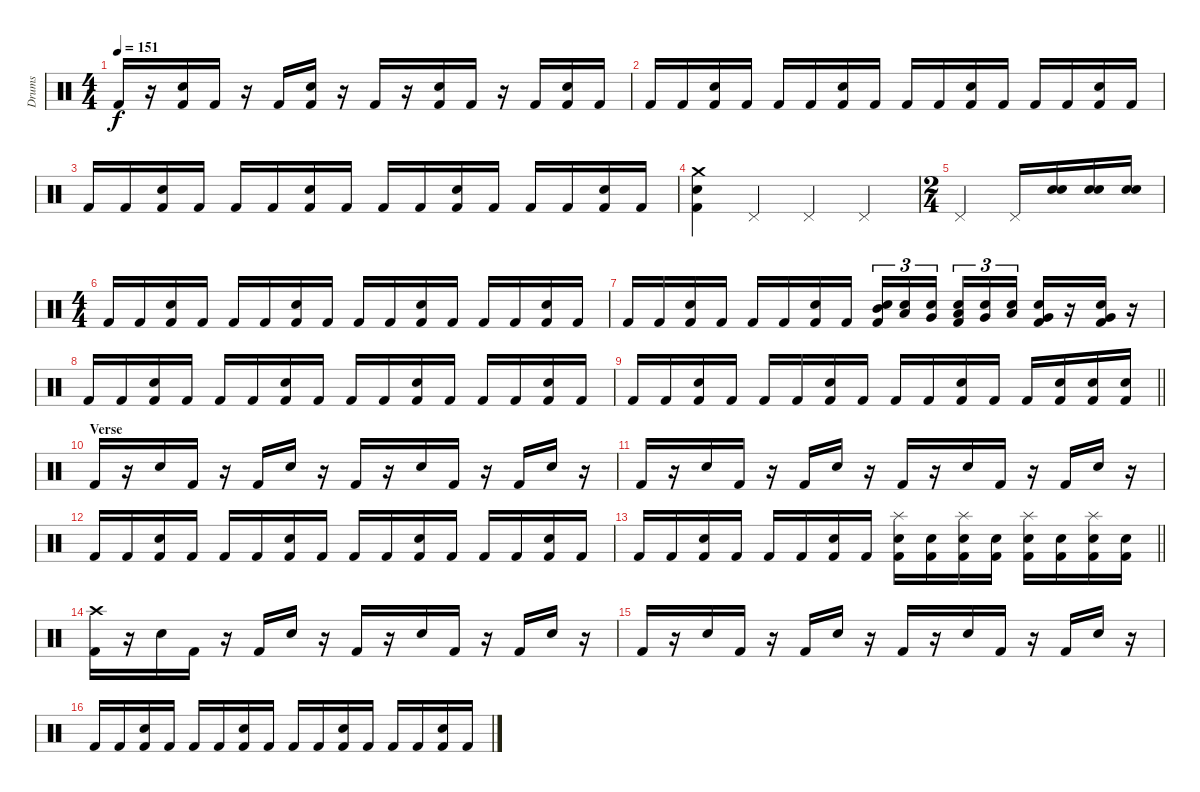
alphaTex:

\track ("Drums" "Drums") {instrument percussion}
\staff {score}
\articulation defaults
\ts (4 4)
\tempo 151
\clef neutral
\ks c "Kick (hit) 2".16{dy f}
r.16 ("Snare (hit) 2" "Kick (hit) 2").16 "Kick (hit) 2".16 r.16 "Kick (hit) 2".16 ("Snare (hit) 2" "Kick (hit) 2").16 r.16 "Kick (hit) 2".16 r.16 ("Snare (hit) 2" "Kick (hit) 2").16 "Kick (hit) 2".16 r.16 "Kick (hit) 2".16 ("Snare (hit) 2" "Kick (hit) 2").16 "Kick (hit) 2".16 |
"Kick (hit) 2".16 "Kick (hit) 2".16 ("Snare (hit) 2" "Kick (hit) 2").16 "Kick (hit) 2".16 "Kick (hit) 2".16 "Kick (hit) 2".16 ("Snare (hit) 2" "Kick (hit) 2").16 "Kick (hit) 2".16 "Kick (hit) 2".16 "Kick (hit) 2".16 ("Snare (hit) 2" "Kick (hit) 2").16 "Kick (hit) 2".16 "Kick (hit) 2".16 "Kick (hit) 2".16 ("Snare (hit) 2" "Kick (hit) 2").16 "Kick (hit) 2".16 |
"Kick (hit) 2".16 "Kick (hit) 2".16 ("Snare (hit) 2" "Kick (hit) 2").16 "Kick (hit) 2".16 "Kick (hit) 2".16 "Kick (hit) 2".16 ("Snare (hit) 2" "Kick (hit) 2").16 "Kick (hit) 2".16 "Kick (hit) 2".16 "Kick (hit) 2".16 ("Snare (hit) 2" "Kick (hit) 2").16 "Kick (hit) 2".16 "Kick (hit) 2".16 "Kick (hit) 2".16 ("Snare (hit) 2" "Kick (hit) 2").16 "Kick (hit) 2".16 |
("Crash medium (hit)" "Snare (hit) 2" "Kick (hit) 2").4 "Pedal Hi-Hat (hit)".4 "Pedal Hi-Hat (hit)".4 "Pedal Hi-Hat (hit)".4 |
\ts (2 4)
"Pedal Hi-Hat (hit)".4 "Pedal Hi-Hat (hit)".16 ("Electric Snare (hit)" "Snare (hit) 2").16 ("Electric Snare (hit)" "Snare (hit) 2").16 ("Electric Snare (hit)" "Snare (hit) 2").16 |
\ts (4 4)
"Kick (hit) 2".16 "Kick (hit) 2".16 ("Snare (hit) 2" "Kick (hit) 2").16 "Kick (hit) 2".16 "Kick (hit) 2".16 "Kick (hit) 2".16 ("Snare (hit) 2" "Kick (hit) 2").16 "Kick (hit) 2".16 "Kick (hit) 2".16 "Kick (hit) 2".16 ("Snare (hit) 2" "Kick (hit) 2").16 "Kick (hit) 2".16 "Kick (hit) 2".16 "Kick (hit) 2".16 ("Snare (hit) 2" "Kick (hit) 2").16 "Kick (hit) 2".16 |
"Kick (hit) 2".16 "Kick (hit) 2".16 ("Snare (hit) 2" "Kick (hit) 2").16 "Kick (hit) 2".16 "Kick (hit) 2".16 "Kick (hit) 2".16 ("Snare (hit) 2" "Kick (hit) 2").16 "Kick (hit) 2".16 ("Mid Tom (hit)" "Snare (hit) 2" "Kick (hit) 2").16{tu (3 2)} ("Low Tom (hit)" "Snare (hit) 2").16{tu (3 2)} ("Very Low Tom (hit)" "Snare (hit) 2").16{tu (3 2) beam splitsecondary} ("Low Floor Tom (hit)" "Snare (hit) 2" "Kick (hit) 2").16{tu (3 2)} ("Very Low Tom (hit)" "Snare (hit) 2").16{tu (3 2)} ("Low Tom (hit)" "Snare (hit) 2").16{tu (3 2)} ("Very Low Tom (hit)" "Snare (hit) 2" "Kick (hit) 2").16 r.16 ("Very Low Tom (hit)" "Snare (hit) 2" "Kick (hit) 2").16 r.16 |
"Kick (hit) 2".16 "Kick (hit) 2".16 ("Snare (hit) 2" "Kick (hit) 2").16 "Kick (hit) 2".16 "Kick (hit) 2".16 "Kick (hit) 2".16 ("Snare (hit) 2" "Kick (hit) 2").16 "Kick (hit) 2".16 "Kick (hit) 2".16 "Kick (hit) 2".16 ("Snare (hit) 2" "Kick (hit) 2").16 "Kick (hit) 2".16 "Kick (hit) 2".16 "Kick (hit) 2".16 ("Snare (hit) 2" "Kick (hit) 2").16 "Kick (hit) 2".16 |
\barLineRight lightlight "Kick (hit) 2".16 "Kick (hit) 2".16
("Snare (hit) 2" "Kick (hit) 2").16 "Kick (hit) 2".16 "Kick (hit) 2".16 "Kick (hit) 2".16 ("Snare (hit) 2" "Kick (hit) 2").16 "Kick (hit) 2".16 "Kick (hit) 2".16 "Kick (hit) 2".16 ("Snare (hit) 2" "Kick (hit) 2").16 "Kick (hit) 2".16 "Kick (hit) 2".16 ("Snare (hit) 2" "Kick (hit) 2").16 ("Snare (hit) 2" "Kick (hit) 2").16 ("Snare (hit) 2" "Kick (hit) 2").16 |
\section ("" "Verse")
"Kick (hit) 2".16 r.16 "Snare (hit) 2".16 "Kick (hit) 2".16 r.16 "Kick (hit) 2".16 "Snare (hit) 2".16 r.16 "Kick (hit) 2".16 r.16 "Snare (hit) 2".16 "Kick (hit) 2".16 r.16 "Kick (hit) 2".16 "Snare (hit) 2".16 r.16 |
"Kick (hit) 2".16 r.16 "Snare (hit) 2".16 "Kick (hit) 2".16 r.16 "Kick (hit) 2".16 "Snare (hit) 2".16 r.16 "Kick (hit) 2".16 r.16 "Snare (hit) 2".16 "Kick (hit) 2".16 r.16 "Kick (hit) 2".16 "Snare (hit) 2".16 r.16 |
"Kick (hit) 2".16 "Kick (hit) 2".16 ("Snare (hit) 2" "Kick (hit) 2").16 "Kick (hit) 2".16 "Kick (hit) 2".16 "Kick (hit) 2".16 ("Snare (hit) 2" "Kick (hit) 2").16 "Kick (hit) 2".16 "Kick (hit) 2".16 "Kick (hit) 2".16 ("Snare (hit) 2" "Kick (hit) 2").16 "Kick (hit) 2".16 "Kick (hit) 2".16 "Kick (hit) 2".16 ("Snare (hit) 2" "Kick (hit) 2").16 "Kick (hit) 2".16 |
\barLineRight lightlight "Kick (hit) 2".16 "Kick (hit) 2".16
("Snare (hit) 2" "Kick (hit) 2").16 "Kick (hit) 2".16 "Kick (hit) 2".16 "Kick (hit) 2".16 ("Snare (hit) 2" "Kick (hit) 2").16 "Kick (hit) 2".16 ("Splash (hit)" "Snare (hit) 2" "Kick (hit) 2").16 ("Snare (hit) 2" "Kick (hit) 2").16 ("Splash (hit)" "Snare (hit) 2" "Kick (hit) 2").16 ("Snare (hit) 2" "Kick (hit) 2").16 ("Splash (hit)" "Snare (hit) 2" "Kick (hit) 2").16 ("Snare (hit) 2" "Kick (hit) 2").16 ("Splash (hit)" "Snare (hit) 2" "Kick (hit) 2").16 ("Snare (hit) 2" "Kick (hit) 2").16 |
("Crash high (hit)" "Kick (hit) 2").16 r.16 "Snare (hit) 2".16 "Kick (hit) 2".16 r.16 "Kick (hit) 2".16 "Snare (hit) 2".16 r.16 "Kick (hit) 2".16 r.16 "Snare (hit) 2".16 "Kick (hit) 2".16 r.16 "Kick (hit) 2".16 "Snare (hit) 2".16 r.16 |
"Kick (hit) 2".16 r.16 "Snare (hit) 2".16 "Kick (hit) 2".16 r.16 "Kick (hit) 2".16 "Snare (hit) 2".16 r.16 "Kick (hit) 2".16 r.16 "Snare (hit) 2".16 "Kick (hit) 2".16 r.16 "Kick (hit) 2".16 "Snare (hit) 2".16 r.16 |
"Kick (hit) 2".16 "Kick (hit) 2".16 ("Snare (hit) 2" "Kick (hit) 2").16 "Kick (hit) 2".16 "Kick (hit) 2".16 "Kick (hit) 2".16 ("Snare (hit) 2" "Kick (hit) 2").16 "Kick (hit) 2".16 "Kick (hit) 2".16 "Kick (hit) 2".16 ("Snare (hit) 2" "Kick (hit) 2").16 "Kick (hit) 2".16 "Kick (hit) 2".16 "Kick (hit) 2".16 ("Snare (hit) 2" "Kick (hit) 2").16 "Kick (hit) 2".16
